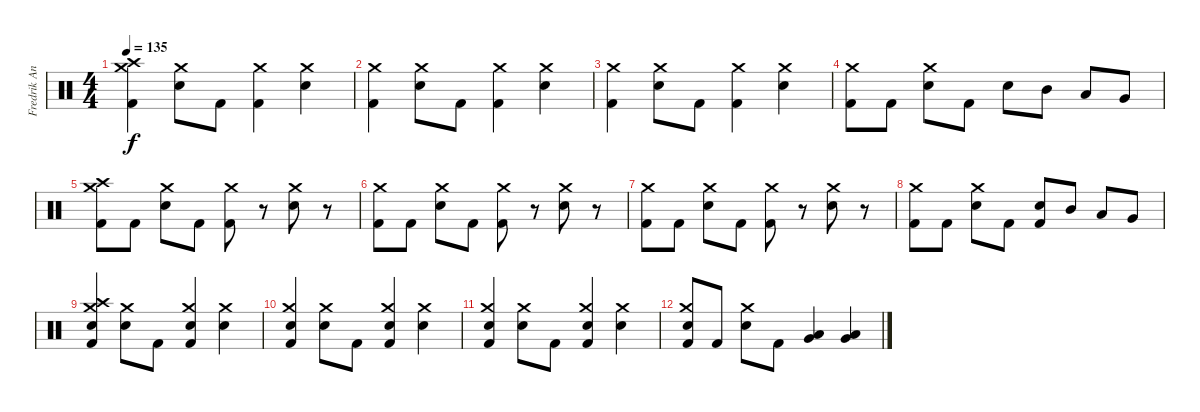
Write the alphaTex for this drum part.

\track ("Fredrik Andersson" "Fredrik An") {instrument percussion}
\staff {score}
\articulation defaults
\ts (4 4)
\tempo 135
\clef neutral
\ks c
("Kick (hit) 2" "Crash medium (hit)" "Crash high (hit)").4{dy f} ("Snare (hit) 2" "Crash medium (hit)").8 "Kick (hit) 2".8 ("Kick (hit) 2" "Crash medium (hit)").4 ("Snare (hit) 2" "Crash medium (hit)").4 |
("Kick (hit) 2" "Crash medium (hit)").4 ("Snare (hit) 2" "Crash medium (hit)").8 "Kick (hit) 2".8 ("Kick (hit) 2" "Crash medium (hit)").4 ("Snare (hit) 2" "Crash medium (hit)").4 |
("Kick (hit) 2" "Crash medium (hit)").4 ("Snare (hit) 2" "Crash medium (hit)").8 "Kick (hit) 2".8 ("Kick (hit) 2" "Crash medium (hit)").4 ("Snare (hit) 2" "Crash medium (hit)").4 |
("Kick (hit) 2" "Crash medium (hit)").8 "Kick (hit) 2".8 ("Snare (hit) 2" "Crash medium (hit)").8 "Kick (hit) 2".8 "Snare (hit) 2".8 "Mid Tom (hit)".8 "Low Tom (hit)".8 "Very Low Tom (hit)".8 |
("Kick (hit) 2" "Crash medium (hit)" "Crash high (hit)").8 "Kick (hit) 2".8 ("Snare (hit) 2" "Crash medium (hit)").8 "Kick (hit) 2".8 ("Kick (hit) 2" "Crash medium (hit)").8 r.8 ("Snare (hit) 2" "Crash medium (hit)").8 r.8 |
("Kick (hit) 2" "Crash medium (hit)").8 "Kick (hit) 2".8 ("Snare (hit) 2" "Crash medium (hit)").8 "Kick (hit) 2".8 ("Kick (hit) 2" "Crash medium (hit)").8 r.8 ("Snare (hit) 2" "Crash medium (hit)").8 r.8 |
("Kick (hit) 2" "Crash medium (hit)").8 "Kick (hit) 2".8 ("Snare (hit) 2" "Crash medium (hit)").8 "Kick (hit) 2".8 ("Kick (hit) 2" "Crash medium (hit)").8 r.8 ("Snare (hit) 2" "Crash medium (hit)").8 r.8 |
("Kick (hit) 2" "Crash medium (hit)").8 "Kick (hit) 2".8 ("Snare (hit) 2" "Crash medium (hit)").8 "Kick (hit) 2".8 ("Kick (hit) 2" "Snare (hit) 2").8 "Mid Tom (hit)".8 "Low Tom (hit)".8 "Very Low Tom (hit)".8 |
("Kick (hit) 2" "Snare (hit) 2" "Crash medium (hit)" "Crash high (hit)").4 ("Snare (hit) 2" "Crash medium (hit)").8 "Kick (hit) 2".8 ("Kick (hit) 2" "Snare (hit) 2" "Crash medium (hit)").4 ("Snare (hit) 2" "Crash medium (hit)").4 |
("Kick (hit) 2" "Snare (hit) 2" "Crash medium (hit)").4 ("Snare (hit) 2" "Crash medium (hit)").8 "Kick (hit) 2".8 ("Kick (hit) 2" "Snare (hit) 2" "Crash medium (hit)").4 ("Snare (hit) 2" "Crash medium (hit)").4 |
("Kick (hit) 2" "Snare (hit) 2" "Crash medium (hit)").4 ("Snare (hit) 2" "Crash medium (hit)").8 "Kick (hit) 2".8 ("Kick (hit) 2" "Snare (hit) 2" "Crash medium (hit)").4 ("Snare (hit) 2" "Crash medium (hit)").4 |
("Kick (hit) 2" "Snare (hit) 2" "Crash medium (hit)").8 "Kick (hit) 2".8 ("Snare (hit) 2" "Crash medium (hit)").8 "Kick (hit) 2".8 ("Very Low Tom (hit)" "Low Floor Tom (hit)").4 ("Very Low Tom (hit)" "Low Floor Tom (hit)").4
